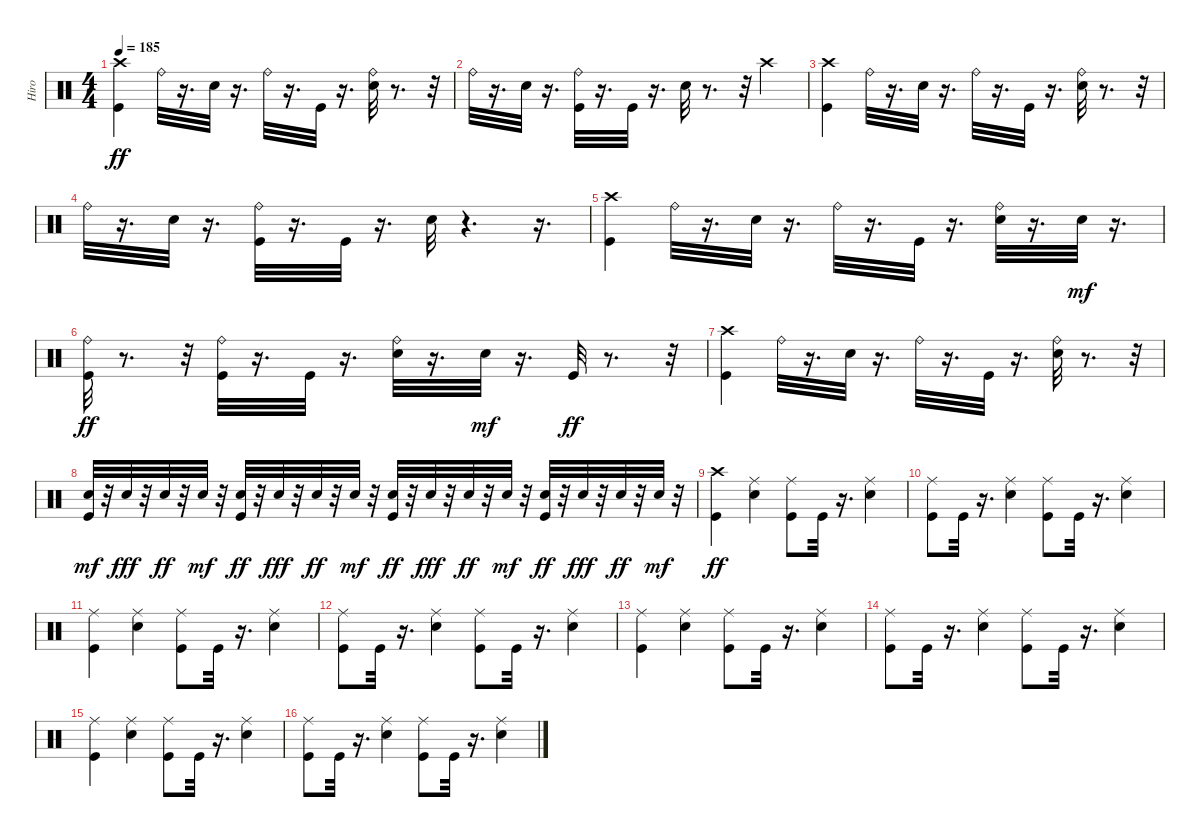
\track ("Hiro" "Hiro") {instrument percussion}
\staff {score}
\articulation defaults
\ts (4 4)
\tempo 185
\clef neutral
\ks c
("Crash high (hit)" "Kick (hit)").4{dy ff} "Ride (bell)".32 r.16{d} "Electric Snare (hit)".32 r.16{d} "Ride (bell)".32 r.16{d} "Kick (hit)".32 r.16{d} ("Electric Snare (hit)" "Ride (bell)").32 r.8{d} r.32 |
"Ride (bell)".32 r.16{d} "Electric Snare (hit)".32 r.16{d} ("Kick (hit)" "Ride (bell)").32 r.16{d} "Kick (hit)".32 r.16{d} "Electric Snare (hit)".32 r.8{d} r.32 "Crash high (hit)".4 |
("Crash high (hit)" "Kick (hit)").4 "Ride (bell)".32 r.16{d} "Electric Snare (hit)".32 r.16{d} "Ride (bell)".32 r.16{d} "Kick (hit)".32 r.16{d} ("Electric Snare (hit)" "Ride (bell)").32 r.8{d} r.32 |
"Ride (bell)".32 r.16{d} "Electric Snare (hit)".32 r.16{d} ("Kick (hit)" "Ride (bell)").32 r.16{d} "Kick (hit)".32 r.16{d} "Electric Snare (hit)".32 r.4{d} r.16{d} |
("Crash high (hit)" "Kick (hit)").4 "Ride (bell)".32 r.16{d} "Electric Snare (hit)".32 r.16{d} "Ride (bell)".32 r.16{d} "Kick (hit)".32 r.16{d} ("Electric Snare (hit)" "Ride (bell)").32 r.16{d} "Electric Snare (hit)".32{dy mf} r.16{d} |
("Kick (hit)" "Ride (bell)").32{dy ff} r.8{d} r.32 ("Kick (hit)" "Ride (bell)").32 r.16{d} "Kick (hit)".32 r.16{d} ("Electric Snare (hit)" "Ride (bell)").32 r.16{d} "Electric Snare (hit)".32{dy mf} r.16{d} "Kick (hit)".32{dy ff} r.8{d} r.32 |
("Crash high (hit)" "Kick (hit)").4 "Ride (bell)".32 r.16{d} "Electric Snare (hit)".32 r.16{d} "Ride (bell)".32 r.16{d} "Kick (hit)".32 r.16{d} ("Electric Snare (hit)" "Ride (bell)").32 r.8{d} r.32 |
("Kick (hit)" "Snare (hit) 2").32{dy mf} r.32 "Electric Snare (hit)".32{dy fff} r.32 "Snare (hit) 2".32{dy ff} r.32 "Snare (hit) 2".32{dy mf} r.32 ("Electric Snare (hit)" "Kick (hit)").32{dy ff} r.32 "Electric Snare (hit)".32{dy fff} r.32 "Snare (hit) 2".32{dy ff} r.32 "Snare (hit) 2".32{dy mf} r.32 ("Snare (hit) 2" "Kick (hit)").32{dy ff} r.32 "Electric Snare (hit)".32{dy fff} r.32 "Snare (hit) 2".32{dy ff} r.32 "Snare (hit) 2".32{dy mf} r.32 ("Electric Snare (hit)" "Kick (hit)").32{dy ff} r.32 "Electric Snare (hit)".32{dy fff} r.32 "Snare (hit) 2".32{dy ff} r.32 "Snare (hit) 2".32{dy mf} r.32 |
("Kick (hit)" "Crash high (hit)").4{dy ff} ("Electric Snare (hit)" "Ride (middle)").4 ("Kick (hit)" "Ride (middle)").8 "Kick (hit)".32 r.16{d} ("Electric Snare (hit)" "Ride (middle)").4 |
("Kick (hit)" "Ride (middle)").8 "Kick (hit)".32 r.16{d} ("Electric Snare (hit)" "Ride (middle)").4 ("Kick (hit)" "Ride (middle)").8 "Kick (hit)".32 r.16{d} ("Electric Snare (hit)" "Ride (middle)").4 |
("Kick (hit)" "Ride (middle)").4 ("Electric Snare (hit)" "Ride (middle)").4 ("Kick (hit)" "Ride (middle)").8 "Kick (hit)".32 r.16{d} ("Electric Snare (hit)" "Ride (middle)").4 |
("Kick (hit)" "Ride (middle)").8 "Kick (hit)".32 r.16{d} ("Electric Snare (hit)" "Ride (middle)").4 ("Kick (hit)" "Ride (middle)").8 "Kick (hit)".32 r.16{d} ("Electric Snare (hit)" "Ride (middle)").4 |
("Kick (hit)" "Ride (middle)").4 ("Electric Snare (hit)" "Ride (middle)").4 ("Kick (hit)" "Ride (middle)").8 "Kick (hit)".32 r.16{d} ("Electric Snare (hit)" "Ride (middle)").4 |
("Kick (hit)" "Ride (middle)").8 "Kick (hit)".32 r.16{d} ("Electric Snare (hit)" "Ride (middle)").4 ("Kick (hit)" "Ride (middle)").8 "Kick (hit)".32 r.16{d} ("Electric Snare (hit)" "Ride (middle)").4 |
("Kick (hit)" "Ride (middle)").4 ("Electric Snare (hit)" "Ride (middle)").4 ("Kick (hit)" "Ride (middle)").8 "Kick (hit)".32 r.16{d} ("Electric Snare (hit)" "Ride (middle)").4 |
("Kick (hit)" "Ride (middle)").8 "Kick (hit)".32 r.16{d} ("Electric Snare (hit)" "Ride (middle)").4 ("Kick (hit)" "Ride (middle)").8 "Kick (hit)".32 r.16{d} ("Electric Snare (hit)" "Ride (middle)").4
